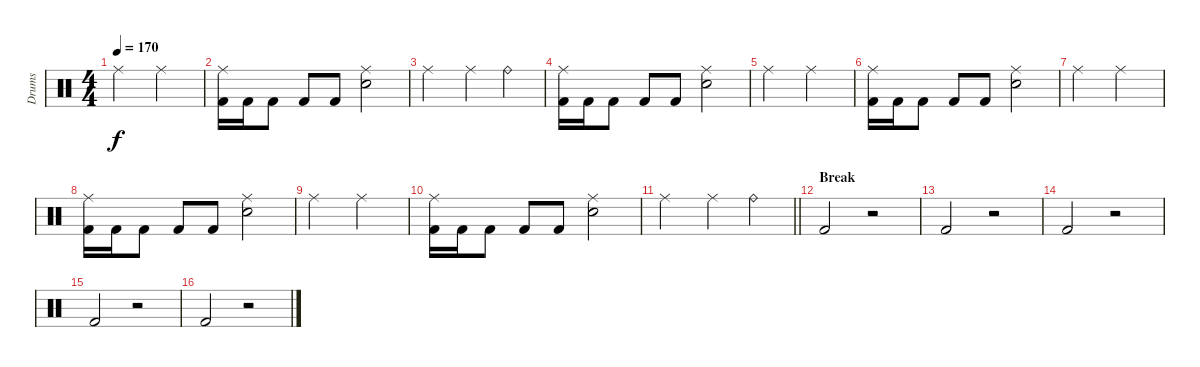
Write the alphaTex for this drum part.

\track ("Drums" "Drums") {instrument percussion}
\staff {score}
\articulation defaults
\ts (4 4)
\tempo 170
\clef neutral
\ks c "Ride (middle)".2{dy f} "Ride (middle)".2
|
("Ride (middle)" "Kick (hit) 2").16 "Kick (hit) 2".16 "Kick (hit) 2".8 "Kick (hit) 2".8 "Kick (hit) 2".8 ("Ride (middle)" "Electric Snare (hit)").2 |
"Ride (middle)".2 "Ride (middle)".4 "Ride (bell)".4 |
("Ride (middle)" "Kick (hit) 2").16 "Kick (hit) 2".16 "Kick (hit) 2".8 "Kick (hit) 2".8 "Kick (hit) 2".8 ("Ride (middle)" "Electric Snare (hit)").2 |
"Ride (middle)".2 "Ride (middle)".2 |
("Ride (middle)" "Kick (hit) 2").16 "Kick (hit) 2".16 "Kick (hit) 2".8 "Kick (hit) 2".8 "Kick (hit) 2".8 ("Ride (middle)" "Electric Snare (hit)").2 |
"Ride (middle)".2 "Ride (middle)".2 |
("Ride (middle)" "Kick (hit) 2").16 "Kick (hit) 2".16 "Kick (hit) 2".8 "Kick (hit) 2".8 "Kick (hit) 2".8 ("Ride (middle)" "Electric Snare (hit)").2 |
"Ride (middle)".2 "Ride (middle)".2 |
("Ride (middle)" "Kick (hit) 2").16 "Kick (hit) 2".16 "Kick (hit) 2".8 "Kick (hit) 2".8 "Kick (hit) 2".8 ("Ride (middle)" "Electric Snare (hit)").2 |
\barLineRight lightlight "Ride (middle)".2 "Ride (middle)".4 "Ride (bell)".4
|
\section ("" "Break")
"Kick (hit) 2".2 r.2 |
"Kick (hit) 2".2 r.2 |
"Kick (hit) 2".2 r.2 |
"Kick (hit) 2".2 r.2 |
"Kick (hit) 2".2 r.2
